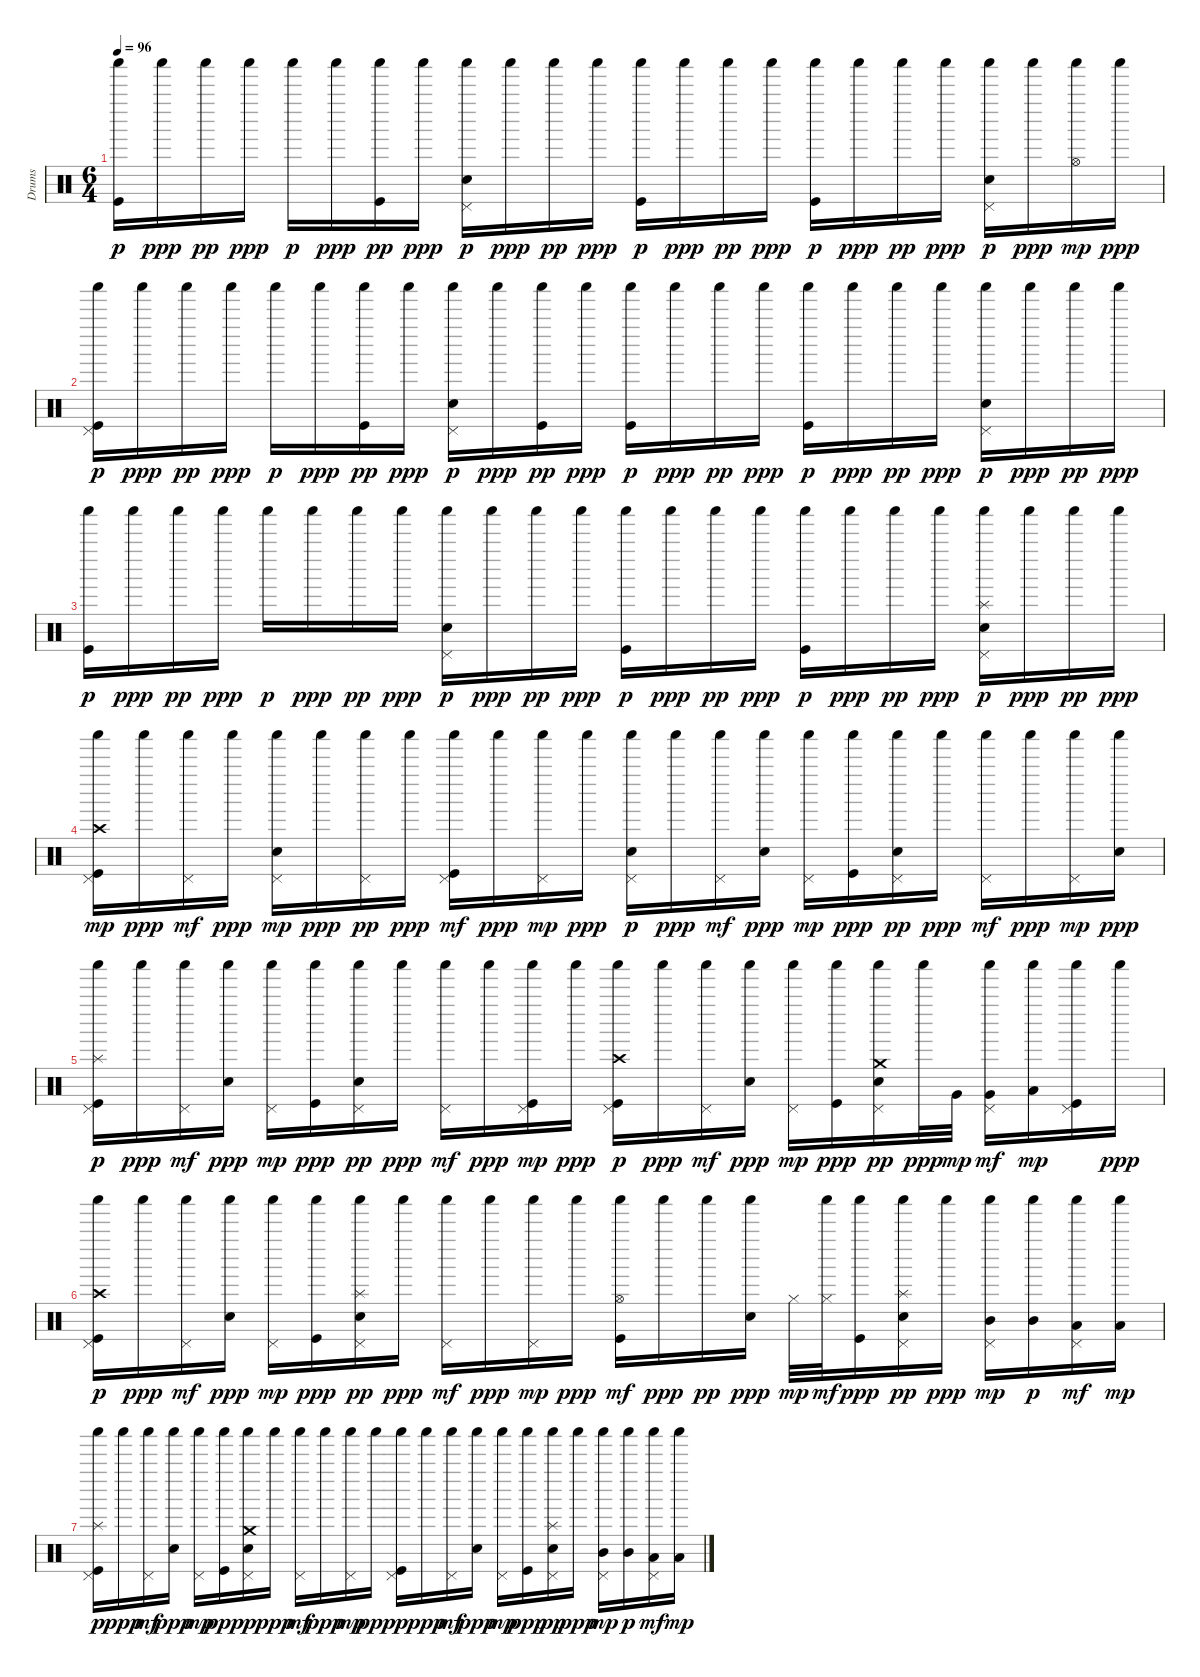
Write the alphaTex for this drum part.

\track ("Drums" "Drums") {instrument percussion}
\staff {score}
\articulation defaults
\ts (6 4)
\tempo 96
\clef neutral
\ks c
("Shaker (hit)" "Kick (hit)").16{dy p} "Shaker (hit)".16{dy ppp} "Shaker (hit)".16{dy pp} "Shaker (hit)".16{dy ppp} "Shaker (hit)".16{dy p} "Shaker (hit)".16{dy ppp} ("Shaker (hit)" "Kick (hit)").16{dy pp} "Shaker (hit)".16{dy ppp} ("Shaker (hit)" "Pedal Hi-Hat (hit)" "Hand Clap (hit)").16{dy p} "Shaker (hit)".16{dy ppp} "Shaker (hit)".16{dy pp} "Shaker (hit)".16{dy ppp} ("Shaker (hit)" "Kick (hit)").16{dy p} "Shaker (hit)".16{dy ppp} "Shaker (hit)".16{dy pp} "Shaker (hit)".16{dy ppp} ("Shaker (hit)" "Kick (hit)").16{dy p} "Shaker (hit)".16{dy ppp} "Shaker (hit)".16{dy pp} "Shaker (hit)".16{dy ppp} ("Shaker (hit)" "Pedal Hi-Hat (hit)" "Hand Clap (hit)").16{dy p} "Shaker (hit)".16{dy ppp} ("Shaker (hit)" "Hi-Hat (open)").16{dy mp} "Shaker (hit)".16{dy ppp} |
("Shaker (hit)" "Pedal Hi-Hat (hit)" "Kick (hit)").16{dy p} "Shaker (hit)".16{dy ppp} "Shaker (hit)".16{dy pp} "Shaker (hit)".16{dy ppp} "Shaker (hit)".16{dy p} "Shaker (hit)".16{dy ppp} ("Shaker (hit)" "Kick (hit)").16{dy pp} "Shaker (hit)".16{dy ppp} ("Shaker (hit)" "Pedal Hi-Hat (hit)" "Hand Clap (hit)").16{dy p} "Shaker (hit)".16{dy ppp} ("Shaker (hit)" "Kick (hit)").16{dy pp} "Shaker (hit)".16{dy ppp} ("Shaker (hit)" "Kick (hit)").16{dy p} "Shaker (hit)".16{dy ppp} "Shaker (hit)".16{dy pp} "Shaker (hit)".16{dy ppp} ("Shaker (hit)" "Kick (hit)").16{dy p} "Shaker (hit)".16{dy ppp} "Shaker (hit)".16{dy pp} "Shaker (hit)".16{dy ppp} ("Shaker (hit)" "Pedal Hi-Hat (hit)" "Hand Clap (hit)").16{dy p} "Shaker (hit)".16{dy ppp} "Shaker (hit)".16{dy pp} "Shaker (hit)".16{dy ppp} |
("Shaker (hit)" "Kick (hit)").16{dy p} "Shaker (hit)".16{dy ppp} "Shaker (hit)".16{dy pp} "Shaker (hit)".16{dy ppp} "Shaker (hit)".16{dy p} "Shaker (hit)".16{dy ppp} "Shaker (hit)".16{dy pp} "Shaker (hit)".16{dy ppp} ("Shaker (hit)" "Pedal Hi-Hat (hit)" "Hand Clap (hit)").16{dy p} "Shaker (hit)".16{dy ppp} "Shaker (hit)".16{dy pp} "Shaker (hit)".16{dy ppp} ("Shaker (hit)" "Kick (hit)").16{dy p} "Shaker (hit)".16{dy ppp} "Shaker (hit)".16{dy pp} "Shaker (hit)".16{dy ppp} ("Shaker (hit)" "Kick (hit)").16{dy p} "Shaker (hit)".16{dy ppp} "Shaker (hit)".16{dy pp} "Shaker (hit)".16{dy ppp} ("Shaker (hit)" "Pedal Hi-Hat (hit)" "Splash (hit)" "Hand Clap (hit)").16{dy p} "Shaker (hit)".16{dy ppp} "Shaker (hit)".16{dy pp} "Shaker (hit)".16{dy ppp} |
("Shaker (hit)" "Pedal Hi-Hat (hit)" "Crash high (hit)" "Kick (hit)").16{dy mp} "Shaker (hit)".16{dy ppp} ("Shaker (hit)" "Pedal Hi-Hat (hit)").16{dy mf} "Shaker (hit)".16{dy ppp} ("Shaker (hit)" "Pedal Hi-Hat (hit)" "Hand Clap (hit)").16{dy mp} "Shaker (hit)".16{dy ppp} ("Shaker (hit)" "Pedal Hi-Hat (hit)").16{dy pp} "Shaker (hit)".16{dy ppp} ("Shaker (hit)" "Pedal Hi-Hat (hit)" "Kick (hit)").16{dy mf} "Shaker (hit)".16{dy ppp} ("Shaker (hit)" "Pedal Hi-Hat (hit)").16{dy mp} "Shaker (hit)".16{dy ppp} ("Shaker (hit)" "Pedal Hi-Hat (hit)" "Hand Clap (hit)").16{dy p} "Shaker (hit)".16{dy ppp} ("Shaker (hit)" "Pedal Hi-Hat (hit)").16{dy mf} ("Shaker (hit)" "Hand Clap (hit)").16{dy ppp} ("Shaker (hit)" "Pedal Hi-Hat (hit)").16{dy mp} ("Shaker (hit)" "Kick (hit)").16{dy ppp} ("Shaker (hit)" "Pedal Hi-Hat (hit)" "Hand Clap (hit)").16{dy pp} "Shaker (hit)".16{dy ppp} ("Shaker (hit)" "Pedal Hi-Hat (hit)").16{dy mf} "Shaker (hit)".16{dy ppp} ("Shaker (hit)" "Pedal Hi-Hat (hit)").16{dy mp} ("Shaker (hit)" "Hand Clap (hit)").16{dy ppp} |
("Shaker (hit)" "Pedal Hi-Hat (hit)" "Splash (hit)" "Kick (hit)").16{dy p} "Shaker (hit)".16{dy ppp} ("Shaker (hit)" "Pedal Hi-Hat (hit)").16{dy mf} ("Shaker (hit)" "Hand Clap (hit)").16{dy ppp} ("Shaker (hit)" "Pedal Hi-Hat (hit)").16{dy mp} ("Shaker (hit)" "Kick (hit)").16{dy ppp} ("Shaker (hit)" "Pedal Hi-Hat (hit)" "Hand Clap (hit)").16{dy pp} "Shaker (hit)".16{dy ppp} ("Shaker (hit)" "Pedal Hi-Hat (hit)").16{dy mf} "Shaker (hit)".16{dy ppp} ("Shaker (hit)" "Pedal Hi-Hat (hit)" "Kick (hit)").16{dy mp} "Shaker (hit)".16{dy ppp} ("Shaker (hit)" "Pedal Hi-Hat (hit)" "Crash high (hit)" "Kick (hit)").16{dy p} "Shaker (hit)".16{dy ppp} ("Shaker (hit)" "Pedal Hi-Hat (hit)").16{dy mf} ("Shaker (hit)" "Hand Clap (hit)").16{dy ppp} ("Shaker (hit)" "Pedal Hi-Hat (hit)").16{dy mp} ("Shaker (hit)" "Kick (hit)").16{dy ppp} ("Shaker (hit)" "Pedal Hi-Hat (hit)" "Crash medium (hit)" "Hand Clap (hit)").16{dy pp} "Shaker (hit)".32{dy ppp} "Very Low Tom (hit)".32{dy mp} ("Shaker (hit)" "Pedal Hi-Hat (hit)" "Very Low Tom (hit)").16{dy mf} ("Shaker (hit)" "Low Floor Tom (hit)").16{dy mp} ("Shaker (hit)" "Pedal Hi-Hat (hit)" "Kick (hit)").16 "Shaker (hit)".16{dy ppp} |
("Shaker (hit)" "Pedal Hi-Hat (hit)" "Crash high (hit)" "Kick (hit)").16{dy p} "Shaker (hit)".16{dy ppp} ("Shaker (hit)" "Pedal Hi-Hat (hit)").16{dy mf} ("Shaker (hit)" "Hand Clap (hit)").16{dy ppp} ("Shaker (hit)" "Pedal Hi-Hat (hit)").16{dy mp} ("Shaker (hit)" "Kick (hit)").16{dy ppp} ("Shaker (hit)" "Pedal Hi-Hat (hit)" "Splash (hit)" "Hand Clap (hit)").16{dy pp} "Shaker (hit)".16{dy ppp} ("Shaker (hit)" "Pedal Hi-Hat (hit)").16{dy mf} "Shaker (hit)".16{dy ppp} ("Shaker (hit)" "Pedal Hi-Hat (hit)").16{dy mp} "Shaker (hit)".16{dy ppp} ("Shaker (hit)" "Hi-Hat (open)" "Kick (hit)").16{dy mf} "Shaker (hit)".16{dy ppp} "Shaker (hit)".16{dy pp} ("Shaker (hit)" "Hand Clap (hit)").16{dy ppp} "Hi-Hat (closed)".32{dy mp} ("Shaker (hit)" "Hi-Hat (closed)").32{dy mf} ("Shaker (hit)" "Kick (hit)").16{dy ppp} ("Shaker (hit)" "Pedal Hi-Hat (hit)" "Splash (hit)" "Hand Clap (hit)").16{dy pp} "Shaker (hit)".16{dy ppp} ("Shaker (hit)" "Pedal Hi-Hat (hit)" "Mid Tom (hit)").16{dy mp} ("Shaker (hit)" "Mid Tom (hit)").16{dy p} ("Shaker (hit)" "Pedal Hi-Hat (hit)" "Low Tom (hit)").16{dy mf} ("Shaker (hit)" "Low Tom (hit)").16{dy mp} |
("Shaker (hit)" "Pedal Hi-Hat (hit)" "Splash (hit)" "Kick (hit)").16{dy p} "Shaker (hit)".16{dy ppp} ("Shaker (hit)" "Pedal Hi-Hat (hit)").16{dy mf} ("Shaker (hit)" "Hand Clap (hit)").16{dy ppp} ("Shaker (hit)" "Pedal Hi-Hat (hit)").16{dy mp} ("Shaker (hit)" "Kick (hit)").16{dy ppp} ("Shaker (hit)" "Pedal Hi-Hat (hit)" "Crash medium (hit)" "Hand Clap (hit)").16{dy p} "Shaker (hit)".16{dy ppp} ("Shaker (hit)" "Pedal Hi-Hat (hit)").16{dy mf} "Shaker (hit)".16{dy ppp} ("Shaker (hit)" "Pedal Hi-Hat (hit)").16{dy mp} "Shaker (hit)".16{dy ppp} ("Shaker (hit)" "Pedal Hi-Hat (hit)" "Kick (hit)").16{dy p} "Shaker (hit)".16{dy ppp} ("Shaker (hit)" "Pedal Hi-Hat (hit)").16{dy mf} ("Shaker (hit)" "Hand Clap (hit)").16{dy ppp} ("Shaker (hit)" "Pedal Hi-Hat (hit)").16{dy mp} ("Shaker (hit)" "Kick (hit)").16{dy ppp} ("Shaker (hit)" "Pedal Hi-Hat (hit)" "Splash (hit)" "Hand Clap (hit)").16{dy pp} "Shaker (hit)".16{dy ppp} ("Shaker (hit)" "Pedal Hi-Hat (hit)" "Mid Tom (hit)").16{dy mp} ("Shaker (hit)" "Mid Tom (hit)").16{dy p} ("Shaker (hit)" "Pedal Hi-Hat (hit)" "Low Tom (hit)").16{dy mf} ("Shaker (hit)" "Low Tom (hit)").16{dy mp}
